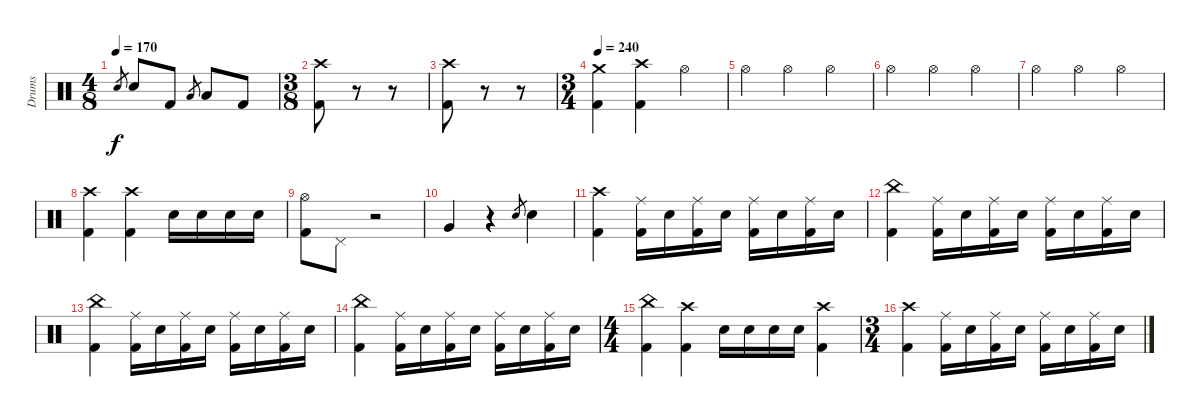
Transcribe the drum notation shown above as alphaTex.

\track ("Drums" "Drums") {instrument percussion}
\staff {score}
\articulation defaults
\ts (4 8)
\tempo 170
\clef neutral
\ks c "Electric Snare (hit)".8{gr dy f} "Electric Snare (hit)".8 "Kick (hit) 2".8 "Low Tom (hit)".8{gr} "Low Tom (hit)".8 "Kick (hit) 2".8
|
\ts (3 8)
("Crash high (hit)" "Kick (hit) 2").8 r.8{volume 0} r.8 |
("Crash high (hit)" "Kick (hit) 2").8{volume 13} r.8{volume 0} r.8 |
\ts (3 4)
\tempo 240
("Crash medium (hit)" "Kick (hit) 2").4{volume 13} ("Crash high (hit)" "Kick (hit) 2").4 "Hi-Hat (open)".4 |
"Hi-Hat (open)".4 "Hi-Hat (open)".4 "Hi-Hat (open)".4 |
"Hi-Hat (open)".4 "Hi-Hat (open)".4 "Hi-Hat (open)".4 |
"Hi-Hat (open)".4 "Hi-Hat (open)".4 "Hi-Hat (open)".4 |
("Crash high (hit)" "Kick (hit) 2").4 ("Crash high (hit)" "Kick (hit) 2").4 "Electric Snare (hit)".16 "Electric Snare (hit)".16 "Electric Snare (hit)".16 "Electric Snare (hit)".16 |
("Hi-Hat (open)" "Kick (hit) 2").8 "Pedal Hi-Hat (hit)".8 r.2 |
"Very Low Tom (hit)".4 r.4 "Electric Snare (hit)".8{gr} "Electric Snare (hit)".4 |
("Crash high (hit)" "Kick (hit) 2").4 ("Ride (middle)" "Kick (hit) 2").16 "Electric Snare (hit)".16 ("Ride (middle)" "Kick (hit) 2").16 "Electric Snare (hit)".16 ("Ride (middle)" "Kick (hit) 2").16 "Electric Snare (hit)".16 ("Ride (middle)" "Kick (hit) 2").16 "Electric Snare (hit)".16 |
("China (hit)" "Kick (hit) 2").4 ("Ride (middle)" "Kick (hit) 2").16 "Electric Snare (hit)".16 ("Ride (middle)" "Kick (hit) 2").16 "Electric Snare (hit)".16 ("Ride (middle)" "Kick (hit) 2").16 "Electric Snare (hit)".16 ("Ride (middle)" "Kick (hit) 2").16 "Electric Snare (hit)".16 |
("China (hit)" "Kick (hit) 2").4 ("Ride (middle)" "Kick (hit) 2").16 "Electric Snare (hit)".16 ("Ride (middle)" "Kick (hit) 2").16 "Electric Snare (hit)".16 ("Ride (middle)" "Kick (hit) 2").16 "Electric Snare (hit)".16 ("Ride (middle)" "Kick (hit) 2").16 "Electric Snare (hit)".16 |
("China (hit)" "Kick (hit) 2").4 ("Ride (middle)" "Kick (hit) 2").16 "Electric Snare (hit)".16 ("Ride (middle)" "Kick (hit) 2").16 "Electric Snare (hit)".16 ("Ride (middle)" "Kick (hit) 2").16 "Electric Snare (hit)".16 ("Ride (middle)" "Kick (hit) 2").16 "Electric Snare (hit)".16 |
\ts (4 4)
("China (hit)" "Kick (hit) 2").4 ("Crash high (hit)" "Kick (hit) 2").4 "Electric Snare (hit)".16 "Electric Snare (hit)".16 "Electric Snare (hit)".16 "Electric Snare (hit)".16 ("Crash high (hit)" "Kick (hit) 2").4 |
\ts (3 4)
("Crash high (hit)" "Kick (hit) 2").4 ("Ride (middle)" "Kick (hit) 2").16 "Electric Snare (hit)".16 ("Ride (middle)" "Kick (hit) 2").16 "Electric Snare (hit)".16 ("Ride (middle)" "Kick (hit) 2").16 "Electric Snare (hit)".16 ("Ride (middle)" "Kick (hit) 2").16 "Electric Snare (hit)".16
